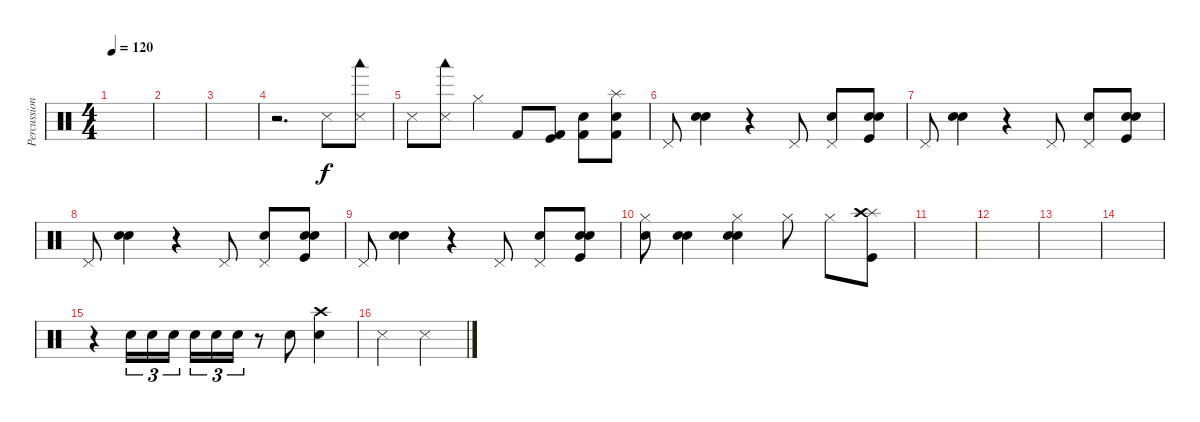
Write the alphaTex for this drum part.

\track ("Percussions" "Percussion") {instrument percussion}
\staff {score}
\articulation defaults
\ts (4 4)
\tempo 120
\clef neutral
\ks c
|
|
|
r.2{d} "Snare (side stick) 3".8 ("Woodblock low (hit)" "Snare (side stick) 3").8 |
"Snare (side stick) 3".8 ("Woodblock low (hit)" "Snare (side stick) 3").8 "Hi-Hat (closed)".4 "Kick (hit) 2".8 ("Kick (hit)" "Kick (hit) 2").8 ("Snare (hit) 2" "Kick (hit) 2").8 ("Splash (hit)" "Snare (hit) 2" "Kick (hit) 2").8 |
"Pedal Hi-Hat (hit)".8 ("Electric Snare (hit)" "Hand Clap (hit)").4 r.4 "Pedal Hi-Hat (hit)".8 ("Pedal Hi-Hat (hit)" "Hand Clap (hit)").8 ("Kick (hit)" "Snare (hit) 2" "Hand Clap (hit)").8 |
"Pedal Hi-Hat (hit)".8 ("Electric Snare (hit)" "Hand Clap (hit)").4 r.4 "Pedal Hi-Hat (hit)".8 ("Pedal Hi-Hat (hit)" "Hand Clap (hit)").8 ("Kick (hit)" "Snare (hit) 2" "Hand Clap (hit)").8 |
"Pedal Hi-Hat (hit)".8 ("Electric Snare (hit)" "Hand Clap (hit)").4 r.4 "Pedal Hi-Hat (hit)".8 ("Pedal Hi-Hat (hit)" "Hand Clap (hit)").8 ("Kick (hit)" "Snare (hit) 2" "Hand Clap (hit)").8 |
"Pedal Hi-Hat (hit)".8 ("Electric Snare (hit)" "Hand Clap (hit)").4 r.4 "Pedal Hi-Hat (hit)".8 ("Pedal Hi-Hat (hit)" "Hand Clap (hit)").8 ("Kick (hit)" "Snare (hit) 2" "Hand Clap (hit)").8 |
("Hi-Hat (closed)" "Hand Clap (hit)").8 ("Electric Snare (hit)" "Hand Clap (hit)").4 ("Hi-Hat (closed)" "Snare (hit) 2" "Hand Clap (hit)").4 "Hi-Hat (closed)".8 "Hi-Hat (closed)".8 ("Kick (hit)" "Splash (hit)" "Crash high (hit)").8 |
|
|
|
|
r.4 "Electric Snare (hit)".16{tu (3 2)} "Electric Snare (hit)".16{tu (3 2)} "Electric Snare (hit)".16{tu (3 2)} "Electric Snare (hit)".16{tu (3 2)} "Electric Snare (hit)".16{tu (3 2)} "Electric Snare (hit)".16{tu (3 2)} r.8 "Snare (hit) 2".8 ("Crash high (hit)" "Snare (hit) 2").4 |
"Snare (side stick) 3".2 "Snare (side stick) 3".2
